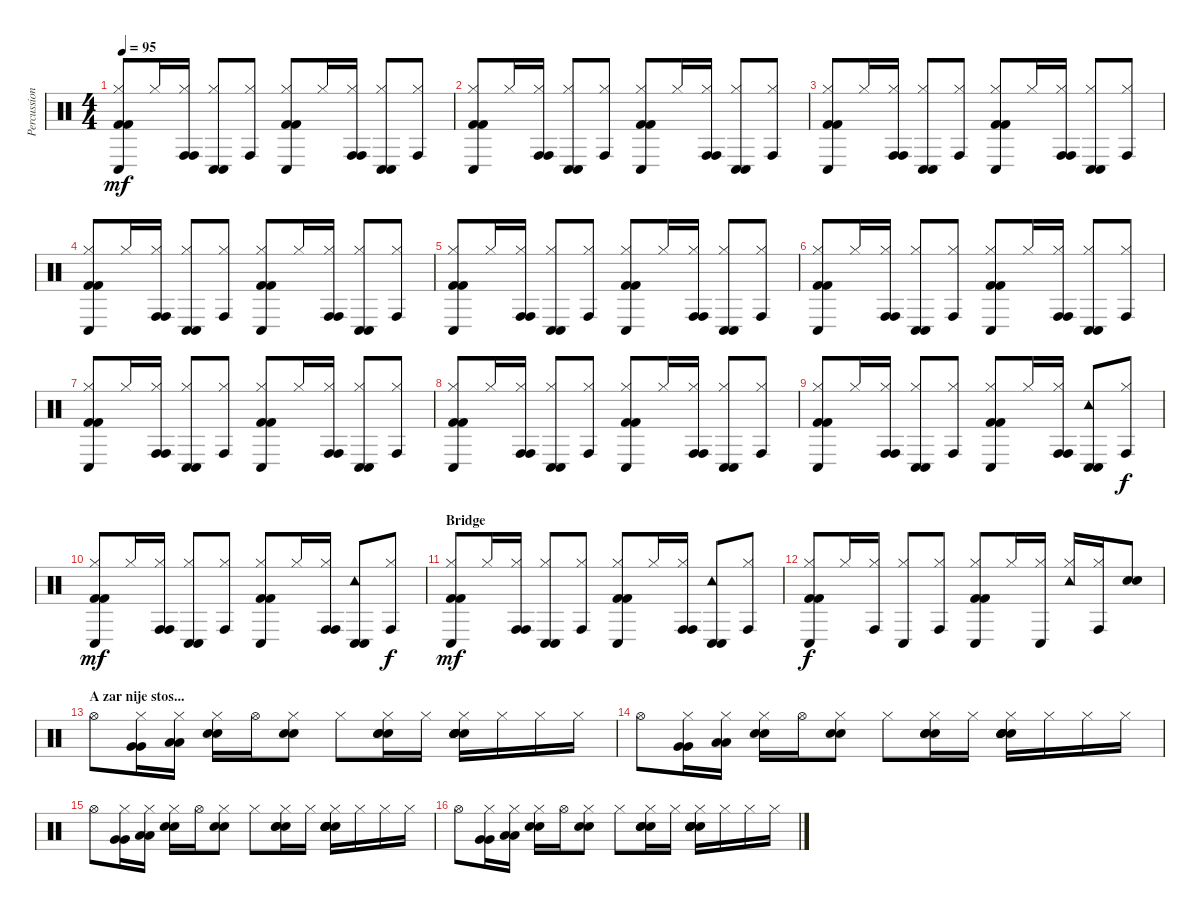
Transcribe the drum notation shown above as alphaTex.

\track ("Percussion" "Percussion") {instrument percussion}
\staff {score}
\articulation defaults
\ts (4 4)
\tempo 95
\clef neutral
\ks c
("Hi-Hat (closed)" "Conga low (hit)" "Kick (hit) 2" "Kick (hit) 2").8{dy mf} "Hi-Hat (closed)".16 ("Hi-Hat (closed)" "Conga high (hit)" "Conga high (hit)").16 ("Hi-Hat (closed)" "Conga low (hit)" "Conga low (hit)").8 ("Hi-Hat (closed)" "Conga high (hit)").8 ("Hi-Hat (closed)" "Conga low (hit)" "Kick (hit) 2" "Kick (hit) 2").8 "Hi-Hat (closed)".16 ("Hi-Hat (closed)" "Conga high (hit)" "Conga high (hit)").16 ("Hi-Hat (closed)" "Conga low (hit)" "Conga low (hit)").8 ("Hi-Hat (closed)" "Conga high (hit)").8 |
("Hi-Hat (closed)" "Conga low (hit)" "Kick (hit) 2" "Kick (hit) 2").8 "Hi-Hat (closed)".16 ("Hi-Hat (closed)" "Conga high (hit)" "Conga high (hit)").16 ("Hi-Hat (closed)" "Conga low (hit)" "Conga low (hit)").8 ("Hi-Hat (closed)" "Conga high (hit)").8 ("Hi-Hat (closed)" "Conga low (hit)" "Kick (hit) 2" "Kick (hit) 2").8 "Hi-Hat (closed)".16 ("Hi-Hat (closed)" "Conga high (hit)" "Conga high (hit)").16 ("Hi-Hat (closed)" "Conga low (hit)" "Conga low (hit)").8 ("Hi-Hat (closed)" "Conga high (hit)").8 |
("Hi-Hat (closed)" "Conga low (hit)" "Kick (hit) 2" "Kick (hit) 2").8 "Hi-Hat (closed)".16 ("Hi-Hat (closed)" "Conga high (hit)" "Conga high (hit)").16 ("Hi-Hat (closed)" "Conga low (hit)" "Conga low (hit)").8 ("Hi-Hat (closed)" "Conga high (hit)").8 ("Hi-Hat (closed)" "Conga low (hit)" "Kick (hit) 2" "Kick (hit) 2").8 "Hi-Hat (closed)".16 ("Hi-Hat (closed)" "Conga high (hit)" "Conga high (hit)").16 ("Hi-Hat (closed)" "Conga low (hit)" "Conga low (hit)").8 ("Hi-Hat (closed)" "Conga high (hit)").8 |
("Hi-Hat (closed)" "Conga low (hit)" "Kick (hit) 2" "Kick (hit) 2").8 "Hi-Hat (closed)".16 ("Hi-Hat (closed)" "Conga high (hit)" "Conga high (hit)").16 ("Hi-Hat (closed)" "Conga low (hit)" "Conga low (hit)").8 ("Hi-Hat (closed)" "Conga high (hit)").8 ("Hi-Hat (closed)" "Conga low (hit)" "Kick (hit) 2" "Kick (hit) 2").8 "Hi-Hat (closed)".16 ("Hi-Hat (closed)" "Conga high (hit)" "Conga high (hit)").16 ("Hi-Hat (closed)" "Conga low (hit)" "Conga low (hit)").8 ("Hi-Hat (closed)" "Conga high (hit)").8 |
("Hi-Hat (closed)" "Conga low (hit)" "Kick (hit) 2" "Kick (hit) 2").8 "Hi-Hat (closed)".16 ("Hi-Hat (closed)" "Conga high (hit)" "Conga high (hit)").16 ("Hi-Hat (closed)" "Conga low (hit)" "Conga low (hit)").8 ("Hi-Hat (closed)" "Conga high (hit)").8 ("Hi-Hat (closed)" "Conga low (hit)" "Kick (hit) 2" "Kick (hit) 2").8 "Hi-Hat (closed)".16 ("Hi-Hat (closed)" "Conga high (hit)" "Conga high (hit)").16 ("Hi-Hat (closed)" "Conga low (hit)" "Conga low (hit)").8 ("Hi-Hat (closed)" "Conga high (hit)").8 |
("Hi-Hat (closed)" "Conga low (hit)" "Kick (hit) 2" "Kick (hit) 2").8 "Hi-Hat (closed)".16 ("Hi-Hat (closed)" "Conga high (hit)" "Conga high (hit)").16 ("Hi-Hat (closed)" "Conga low (hit)" "Conga low (hit)").8 ("Hi-Hat (closed)" "Conga high (hit)").8 ("Hi-Hat (closed)" "Conga low (hit)" "Kick (hit) 2" "Kick (hit) 2").8 "Hi-Hat (closed)".16 ("Hi-Hat (closed)" "Conga high (hit)" "Conga high (hit)").16 ("Hi-Hat (closed)" "Conga low (hit)" "Conga low (hit)").8 ("Hi-Hat (closed)" "Conga high (hit)").8 |
("Hi-Hat (closed)" "Conga low (hit)" "Kick (hit) 2" "Kick (hit) 2").8 "Hi-Hat (closed)".16 ("Hi-Hat (closed)" "Conga high (hit)" "Conga high (hit)").16 ("Hi-Hat (closed)" "Conga low (hit)" "Conga low (hit)").8 ("Hi-Hat (closed)" "Conga high (hit)").8 ("Hi-Hat (closed)" "Conga low (hit)" "Kick (hit) 2" "Kick (hit) 2").8 "Hi-Hat (closed)".16 ("Hi-Hat (closed)" "Conga high (hit)" "Conga high (hit)").16 ("Hi-Hat (closed)" "Conga low (hit)" "Conga low (hit)").8 ("Hi-Hat (closed)" "Conga high (hit)").8 |
("Hi-Hat (closed)" "Conga low (hit)" "Kick (hit) 2" "Kick (hit) 2").8 "Hi-Hat (closed)".16 ("Hi-Hat (closed)" "Conga high (hit)" "Conga high (hit)").16 ("Hi-Hat (closed)" "Conga low (hit)" "Conga low (hit)").8 ("Hi-Hat (closed)" "Conga high (hit)").8 ("Hi-Hat (closed)" "Conga low (hit)" "Kick (hit) 2" "Kick (hit) 2").8 "Hi-Hat (closed)".16 ("Hi-Hat (closed)" "Conga high (hit)" "Conga high (hit)").16 ("Hi-Hat (closed)" "Conga low (hit)" "Conga low (hit)").8 ("Hi-Hat (closed)" "Conga high (hit)").8 |
("Hi-Hat (closed)" "Conga low (hit)" "Kick (hit) 2" "Kick (hit) 2").8 "Hi-Hat (closed)".16 ("Hi-Hat (closed)" "Conga high (hit)" "Conga high (hit)").16 ("Hi-Hat (closed)" "Conga low (hit)" "Conga low (hit)").8 ("Hi-Hat (closed)" "Conga high (hit)").8 ("Hi-Hat (closed)" "Conga low (hit)" "Kick (hit) 2" "Kick (hit) 2").8 "Hi-Hat (closed)".16 ("Hi-Hat (closed)" "Conga high (hit)" "Conga high (hit)").16 ("Tambourine (hit)" "Conga low (hit)" "Conga low (hit)").8 ("Hi-Hat (closed)" "Conga high (hit)").8{dy f} |
("Hi-Hat (closed)" "Conga low (hit)" "Kick (hit) 2" "Kick (hit) 2").8{dy mf} "Hi-Hat (closed)".16 ("Hi-Hat (closed)" "Conga high (hit)" "Conga high (hit)").16 ("Hi-Hat (closed)" "Conga low (hit)" "Conga low (hit)").8 ("Hi-Hat (closed)" "Conga high (hit)").8 ("Hi-Hat (closed)" "Conga low (hit)" "Kick (hit) 2" "Kick (hit) 2").8 "Hi-Hat (closed)".16 ("Hi-Hat (closed)" "Conga high (hit)" "Conga high (hit)").16 ("Tambourine (hit)" "Conga low (hit)" "Conga low (hit)").8 ("Hi-Hat (closed)" "Conga high (hit)").8{dy f} |
\section ("" "Bridge")
("Hi-Hat (closed)" "Conga low (hit)" "Kick (hit) 2" "Kick (hit) 2").8{dy mf} "Hi-Hat (closed)".16 ("Hi-Hat (closed)" "Conga high (hit)" "Conga high (hit)").16 ("Hi-Hat (closed)" "Conga low (hit)" "Conga low (hit)").8 ("Hi-Hat (closed)" "Conga high (hit)").8 ("Hi-Hat (closed)" "Conga low (hit)" "Kick (hit) 2" "Kick (hit) 2").8 "Hi-Hat (closed)".16 ("Hi-Hat (closed)" "Conga high (hit)" "Conga high (hit)").16 ("Tambourine (hit)" "Conga low (hit)" "Conga low (hit)").8 ("Hi-Hat (closed)" "Conga high (hit)").8 |
("Hi-Hat (closed)" "Conga low (hit)" "Kick (hit) 2" "Kick (hit) 2").8{dy f} "Hi-Hat (closed)".16 ("Hi-Hat (closed)" "Conga high (hit)").16 ("Hi-Hat (closed)" "Conga low (hit)").8 ("Hi-Hat (closed)" "Conga high (hit)").8 ("Hi-Hat (closed)" "Conga low (hit)" "Kick (hit) 2" "Kick (hit) 2").8 "Hi-Hat (closed)".16 ("Hi-Hat (closed)" "Conga low (hit)").16 ("Hi-Hat (closed)" "Tambourine (hit)").16 ("Hi-Hat (closed)" "Conga high (hit)").16 ("Snare (hit) 2" "Snare (hit) 2").8 |
\section ("" "A zar nije stos...")
"Hi-Hat (open)".8 ("Hi-Hat (closed)" "Very Low Tom (hit)" "Very Low Tom (hit)").16 ("Hi-Hat (closed)" "Low Floor Tom (hit)" "Low Floor Tom (hit)").16 ("Hi-Hat (closed)" "Electric Snare (hit)" "Electric Snare (hit)").16 "Hi-Hat (open)".16 ("Hi-Hat (closed)" "Snare (hit) 2" "Snare (hit) 2").8 "Hi-Hat (closed)".8 ("Hi-Hat (closed)" "Hand Clap (hit)" "Hand Clap (hit)" "Hand Clap (hit)").16 "Hi-Hat (closed)".16 ("Hi-Hat (closed)" "Snare (hit) 2" "Snare (hit) 2" "Hand Clap (hit)" "Hand Clap (hit)" "Hand Clap (hit)").16 "Hi-Hat (closed)".16 "Hi-Hat (closed)".16 "Hi-Hat (closed)".16 |
"Hi-Hat (open)".8 ("Hi-Hat (closed)" "Very Low Tom (hit)" "Very Low Tom (hit)").16 ("Hi-Hat (closed)" "Low Floor Tom (hit)" "Low Floor Tom (hit)").16 ("Hi-Hat (closed)" "Electric Snare (hit)" "Electric Snare (hit)").16 "Hi-Hat (open)".16 ("Hi-Hat (closed)" "Snare (hit) 2" "Snare (hit) 2").8 "Hi-Hat (closed)".8 ("Hi-Hat (closed)" "Hand Clap (hit)" "Hand Clap (hit)" "Hand Clap (hit)").16 "Hi-Hat (closed)".16 ("Hi-Hat (closed)" "Snare (hit) 2" "Snare (hit) 2" "Hand Clap (hit)" "Hand Clap (hit)" "Hand Clap (hit)").16 "Hi-Hat (closed)".16 "Hi-Hat (closed)".16 "Hi-Hat (closed)".16 |
"Hi-Hat (open)".8 ("Hi-Hat (closed)" "Very Low Tom (hit)" "Very Low Tom (hit)").16 ("Hi-Hat (closed)" "Low Floor Tom (hit)" "Low Floor Tom (hit)").16 ("Hi-Hat (closed)" "Electric Snare (hit)" "Electric Snare (hit)").16 "Hi-Hat (open)".16 ("Hi-Hat (closed)" "Snare (hit) 2" "Snare (hit) 2").8 "Hi-Hat (closed)".8 ("Hi-Hat (closed)" "Hand Clap (hit)" "Hand Clap (hit)" "Hand Clap (hit)").16 "Hi-Hat (closed)".16 ("Hi-Hat (closed)" "Snare (hit) 2" "Snare (hit) 2" "Hand Clap (hit)" "Hand Clap (hit)" "Hand Clap (hit)").16 "Hi-Hat (closed)".16 "Hi-Hat (closed)".16 "Hi-Hat (closed)".16 |
"Hi-Hat (open)".8 ("Hi-Hat (closed)" "Very Low Tom (hit)" "Very Low Tom (hit)").16 ("Hi-Hat (closed)" "Low Floor Tom (hit)" "Low Floor Tom (hit)").16 ("Hi-Hat (closed)" "Electric Snare (hit)" "Electric Snare (hit)").16 "Hi-Hat (open)".16 ("Hi-Hat (closed)" "Snare (hit) 2" "Snare (hit) 2").8 "Hi-Hat (closed)".8 ("Hi-Hat (closed)" "Hand Clap (hit)" "Hand Clap (hit)" "Hand Clap (hit)").16 "Hi-Hat (closed)".16 ("Hi-Hat (closed)" "Snare (hit) 2" "Snare (hit) 2" "Hand Clap (hit)" "Hand Clap (hit)" "Hand Clap (hit)").16 "Hi-Hat (closed)".16 "Hi-Hat (closed)".16 "Hi-Hat (closed)".16
